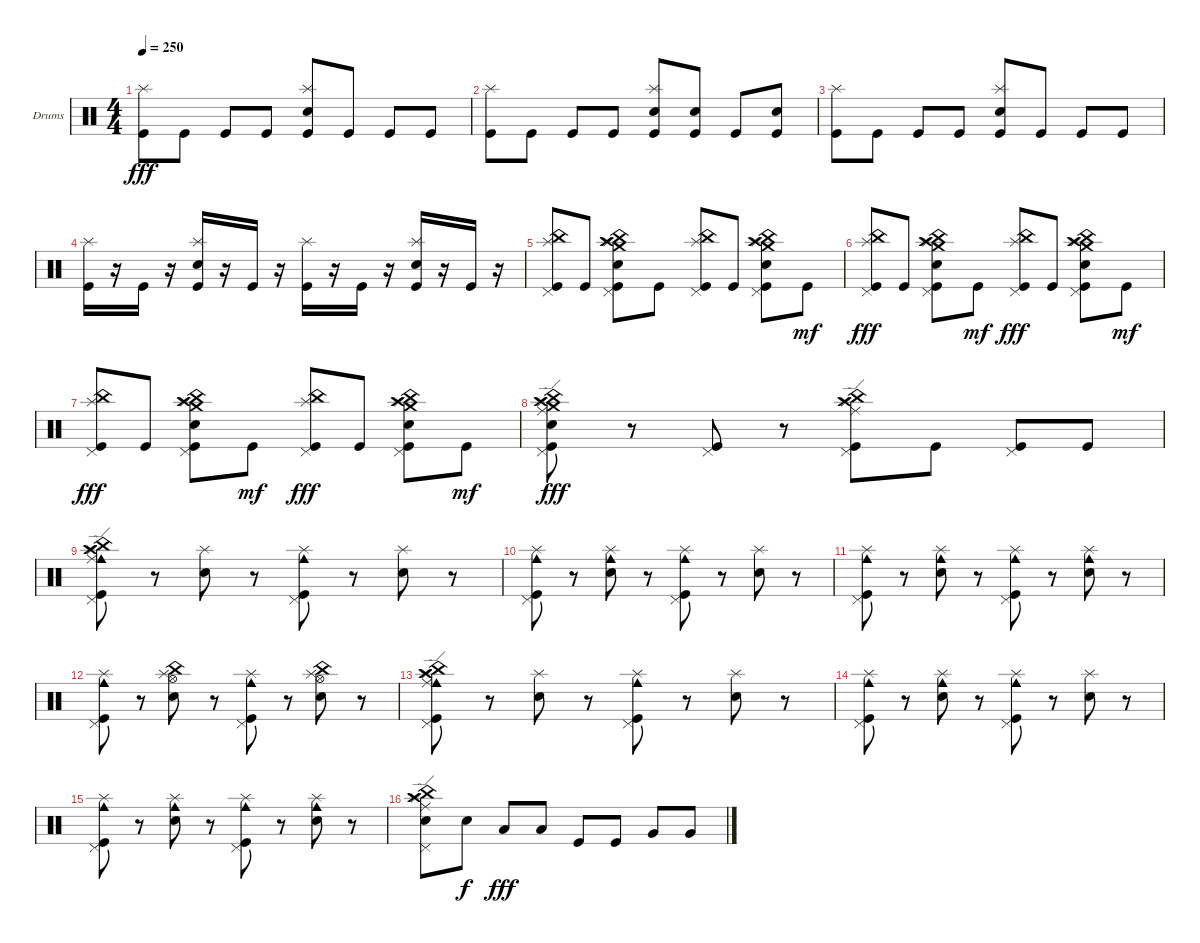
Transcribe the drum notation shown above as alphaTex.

\defaultSystemsLayout 4
\bracketExtendMode groupsimilarinstruments
\firstSystemTrackNameOrientation horizontal
\otherSystemsTrackNameOrientation horizontal
\track ("Драмки" "Drums") {instrument percussion}
\staff {score}
\articulation defaults
\ts (4 4)
\tempo 250
\clef neutral
\ks c
("Kick (hit)" "Splash (hit)").8{dy fff} "Kick (hit)".8 "Kick (hit)".8 "Kick (hit)".8 ("Kick (hit)" "Splash (hit)" "Snare (hit) 2").8 "Kick (hit)".8 "Kick (hit)".8 "Kick (hit)".8 |
("Kick (hit)" "Splash (hit)").8 "Kick (hit)".8 "Kick (hit)".8 "Kick (hit)".8 ("Kick (hit)" "Splash (hit)" "Snare (hit) 2").8 ("Kick (hit)" "Snare (hit) 2").8 "Kick (hit)".8 ("Kick (hit)" "Snare (hit) 2").8 |
("Kick (hit)" "Splash (hit)").8 "Kick (hit)".8 "Kick (hit)".8 "Kick (hit)".8 ("Kick (hit)" "Snare (hit) 2" "Splash (hit)").8 "Kick (hit)".8 "Kick (hit)".8 "Kick (hit)".8 |
("Kick (hit)" "Splash (hit)").16 r.16 "Kick (hit)".16 r.16 ("Kick (hit)" "Snare (hit) 2" "Splash (hit)").16 r.16 "Kick (hit)".16 r.16 ("Kick (hit)" "Splash (hit)").16 r.16 "Kick (hit)".16 r.16 ("Kick (hit)" "Splash (hit)" "Snare (hit) 2").16 r.16 "Kick (hit)".16 r.16 |
("Splash (hit)" "China (hit)" "Pedal Hi-Hat (hit)" "Kick (hit)").8 "Kick (hit)".8 ("Snare (hit) 2" "Splash (hit)" "Pedal Hi-Hat (hit)" "China (hit)" "Crash high (hit)" "Crash medium (hit)" "Kick (hit)").8 "Kick (hit)".8 ("Splash (hit)" "China (hit)" "Kick (hit)" "Pedal Hi-Hat (hit)").8 "Kick (hit)".8 ("Snare (hit) 2" "Splash (hit)" "Pedal Hi-Hat (hit)" "China (hit)" "Crash high (hit)" "Crash medium (hit)" "Kick (hit)").8 "Kick (hit)".8{dy mf} |
("Kick (hit)" "Splash (hit)" "China (hit)" "Pedal Hi-Hat (hit)").8{dy fff} "Kick (hit)".8 ("Snare (hit) 2" "Splash (hit)" "Pedal Hi-Hat (hit)" "China (hit)" "Crash high (hit)" "Crash medium (hit)" "Kick (hit)").8 "Kick (hit)".8{dy mf} ("Kick (hit)" "Pedal Hi-Hat (hit)" "Splash (hit)" "China (hit)").8{dy fff} "Kick (hit)".8 ("Pedal Hi-Hat (hit)" "Crash medium (hit)" "Splash (hit)" "Crash high (hit)" "China (hit)" "Snare (hit) 2" "Kick (hit)").8 "Kick (hit)".8{dy mf} |
("Kick (hit)" "Splash (hit)" "China (hit)" "Pedal Hi-Hat (hit)").8{dy fff} "Kick (hit)".8 ("Snare (hit) 2" "Splash (hit)" "Pedal Hi-Hat (hit)" "China (hit)" "Crash high (hit)" "Crash medium (hit)" "Kick (hit)").8 "Kick (hit)".8{dy mf} ("Kick (hit)" "Pedal Hi-Hat (hit)" "Splash (hit)" "China (hit)").8{dy fff} "Kick (hit)".8 ("Pedal Hi-Hat (hit)" "Crash medium (hit)" "Splash (hit)" "Crash high (hit)" "China (hit)" "Snare (hit) 2" "Kick (hit)").8 "Kick (hit)".8{dy mf} |
("Kick (hit)" "Snare (hit) 2" "Splash (hit)" "China (hit)" "Crash high (hit)" "Crash medium (hit)" "Ride (edge)" "Pedal Hi-Hat (hit)").8{dy fff} r.8 ("Kick (hit)" "Pedal Hi-Hat (hit)").8 r.8 ("Pedal Hi-Hat (hit)" "Kick (hit)" "Splash (hit)" "China (hit)" "Crash high (hit)" "Ride (edge)").8 "Kick (hit)".8 ("Pedal Hi-Hat (hit)" "Kick (hit)").8 "Kick (hit)".8 |
("Kick (hit)" "Cowbell medium (hit)" "China (hit)" "Splash (hit)" "Crash high (hit)" "Ride (edge)" "Pedal Hi-Hat (hit)").8 r.8 ("Snare (hit) 2" "Splash (hit)").8 r.8 ("Kick (hit)" "Cowbell medium (hit)" "Pedal Hi-Hat (hit)" "Splash (hit)").8 r.8 ("Snare (hit) 2" "Splash (hit)").8 r.8 |
("Cowbell medium (hit)" "Kick (hit)" "Pedal Hi-Hat (hit)" "Splash (hit)").8 r.8 ("Cowbell medium (hit)" "Snare (hit) 2" "Splash (hit)").8 r.8 ("Cowbell medium (hit)" "Kick (hit)" "Pedal Hi-Hat (hit)" "Splash (hit)").8 r.8 ("Snare (hit) 2" "Splash (hit)").8 r.8 |
("Cowbell medium (hit)" "Kick (hit)" "Pedal Hi-Hat (hit)" "Splash (hit)").8 r.8 ("Cowbell medium (hit)" "Snare (hit) 2" "Splash (hit)").8 r.8 ("Cowbell medium (hit)" "Kick (hit)" "Pedal Hi-Hat (hit)" "Splash (hit)").8 r.8 ("Cowbell medium (hit)" "Snare (hit) 2" "Splash (hit)").8 r.8 |
("Cowbell medium (hit)" "Kick (hit)" "Pedal Hi-Hat (hit)" "Splash (hit)").8 r.8 ("Snare (hit) 2" "Hi-Hat (open)" "Splash (hit)" "China (hit)").8 r.8 ("Cowbell medium (hit)" "Kick (hit)" "Pedal Hi-Hat (hit)" "Splash (hit)").8 r.8 ("Snare (hit) 2" "Hi-Hat (open)" "Splash (hit)" "China (hit)").8 r.8 |
("Kick (hit)" "Cowbell medium (hit)" "China (hit)" "Splash (hit)" "Crash high (hit)" "Ride (edge)" "Pedal Hi-Hat (hit)").8 r.8 ("Snare (hit) 2" "Splash (hit)").8 r.8 ("Kick (hit)" "Cowbell medium (hit)" "Pedal Hi-Hat (hit)" "Splash (hit)").8 r.8 ("Snare (hit) 2" "Splash (hit)").8 r.8 |
("Cowbell medium (hit)" "Kick (hit)" "Pedal Hi-Hat (hit)" "Splash (hit)").8 r.8 ("Cowbell medium (hit)" "Snare (hit) 2" "Splash (hit)").8 r.8 ("Cowbell medium (hit)" "Kick (hit)" "Pedal Hi-Hat (hit)" "Splash (hit)").8 r.8 ("Snare (hit) 2" "Splash (hit)").8 r.8 |
("Cowbell medium (hit)" "Kick (hit)" "Pedal Hi-Hat (hit)" "Splash (hit)").8 r.8 ("Cowbell medium (hit)" "Snare (hit) 2" "Splash (hit)").8 r.8 ("Cowbell medium (hit)" "Kick (hit)" "Pedal Hi-Hat (hit)" "Splash (hit)").8 r.8 ("Cowbell medium (hit)" "Snare (hit) 2" "Splash (hit)").8 r.8 |
("Splash (hit)" "China (hit)" "Crash high (hit)" "Pedal Hi-Hat (hit)" "Ride (edge)" "Snare (hit) 2").8 "Snare (hit) 2".8{dy f} "Low Tom (hit)".8{dy fff} "Low Tom (hit)".8 "Kick (hit)".8 "Kick (hit)".8 "Very Low Tom (hit)".8 "Very Low Tom (hit)".8
